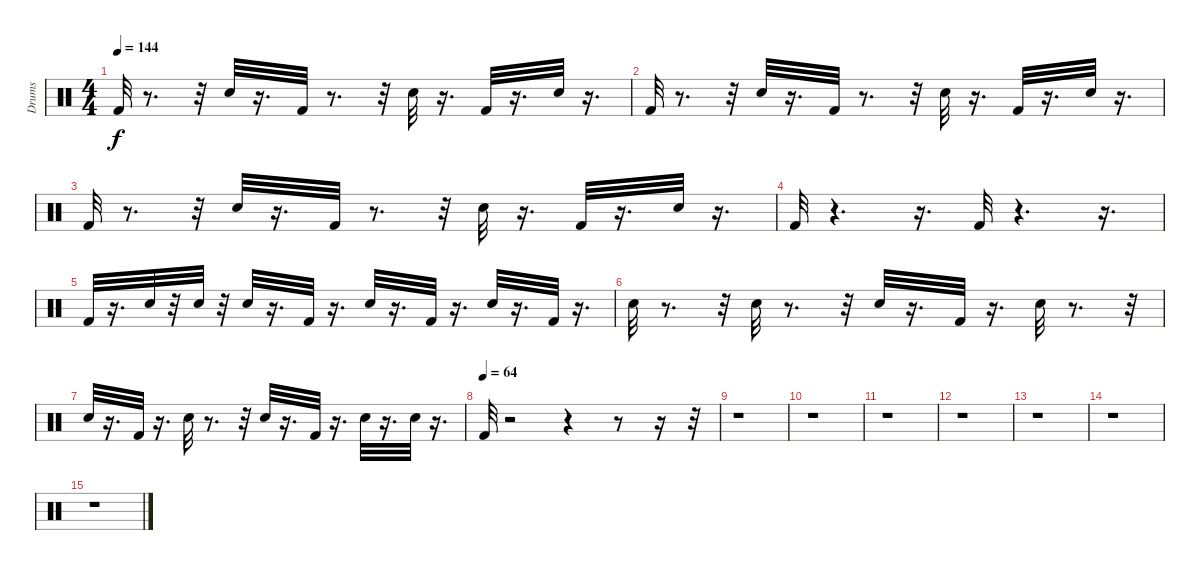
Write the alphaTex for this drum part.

\track ("Drums" "Drums") {instrument percussion}
\staff {score}
\articulation defaults
\ts (4 4)
\tempo 144
\clef neutral
\ks c "Kick (hit) 2".32{dy f}
r.8{d} r.32 "Snare (hit) 2".32 r.16{d} "Kick (hit) 2".32 r.8{d} r.32 "Snare (hit) 2".32 r.16{d} "Kick (hit) 2".32 r.16{d} "Snare (hit) 2".32 r.16{d} |
"Kick (hit) 2".32 r.8{d} r.32 "Snare (hit) 2".32 r.16{d} "Kick (hit) 2".32 r.8{d} r.32 "Snare (hit) 2".32 r.16{d} "Kick (hit) 2".32 r.16{d} "Snare (hit) 2".32 r.16{d} |
"Kick (hit) 2".32 r.8{d} r.32 "Snare (hit) 2".32 r.16{d} "Kick (hit) 2".32 r.8{d} r.32 "Snare (hit) 2".32 r.16{d} "Kick (hit) 2".32 r.16{d} "Snare (hit) 2".32 r.16{d} |
"Kick (hit) 2".32 r.4{d} r.16{d} "Kick (hit) 2".32 r.4{d} r.16{d} |
"Kick (hit) 2".32 r.16{d} "Snare (hit) 2".32 r.32 "Snare (hit) 2".32 r.32 "Snare (hit) 2".32 r.16{d} "Kick (hit) 2".32 r.16{d} "Snare (hit) 2".32 r.16{d} "Kick (hit) 2".32 r.16{d} "Snare (hit) 2".32 r.16{d} "Kick (hit) 2".32 r.16{d} |
"Snare (hit) 2".32 r.8{d} r.32 "Snare (hit) 2".32 r.8{d} r.32 "Snare (hit) 2".32 r.16{d} "Kick (hit) 2".32 r.16{d} "Snare (hit) 2".32 r.8{d} r.32 |
"Snare (hit) 2".32 r.16{d} "Kick (hit) 2".32 r.16{d} "Snare (hit) 2".32 r.8{d} r.32 "Snare (hit) 2".32 r.16{d} "Kick (hit) 2".32 r.16{d} "Snare (hit) 2".32 r.16{d} "Snare (hit) 2".32 r.16{d} |
\tempo (64)
"Kick (hit) 2".32 r.2 r.4 r.8 r.16 r.32 |
r.1 |
r.1 |
r.1 |
r.1 |
r.1 |
r.1 |
r.1
